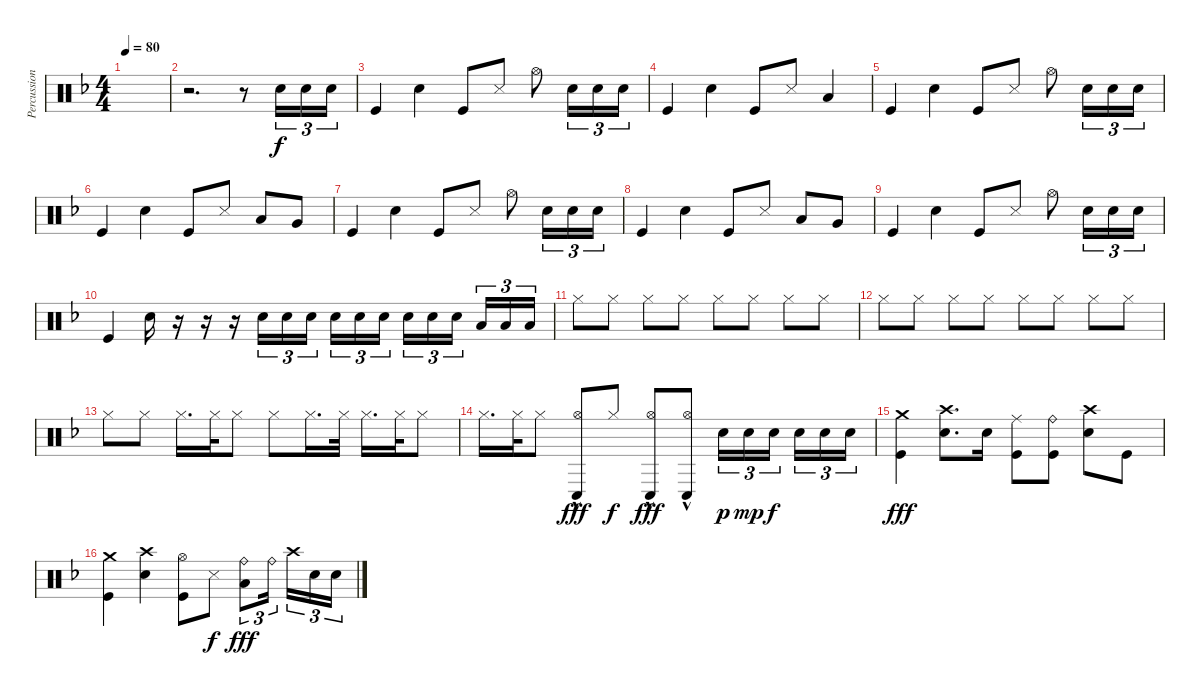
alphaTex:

\track ("Percussion" "Percussion") {instrument percussion}
\staff {score}
\articulation defaults
\ts (4 4)
\tempo 80
\clef neutral
\ks f
|
r.2{d} r.8 "Electric Snare (hit)".16{tu (3 2)} "Electric Snare (hit)".16{tu (3 2)} "Electric Snare (hit)".16{tu (3 2)} |
"Kick (hit)".4 "Electric Snare (hit)".4 "Kick (hit)".8 "Snare (side stick) 3".8 "Hi-Hat (open)".8 "Electric Snare (hit)".16{tu (3 2)} "Electric Snare (hit)".16{tu (3 2)} "Electric Snare (hit)".16{tu (3 2)} |
"Kick (hit)".4 "Electric Snare (hit)".4 "Kick (hit)".8 "Snare (side stick) 3".8 "Low Tom (hit)".4 |
"Kick (hit)".4 "Electric Snare (hit)".4 "Kick (hit)".8 "Snare (side stick) 3".8 "Hi-Hat (open)".8 "Electric Snare (hit)".16{tu (3 2)} "Electric Snare (hit)".16{tu (3 2)} "Electric Snare (hit)".16{tu (3 2)} |
"Kick (hit)".4 "Electric Snare (hit)".4 "Kick (hit)".8 "Snare (side stick) 3".8 "Low Tom (hit)".8 "Very Low Tom (hit)".8 |
"Kick (hit)".4 "Electric Snare (hit)".4 "Kick (hit)".8 "Snare (side stick) 3".8 "Hi-Hat (open)".8 "Electric Snare (hit)".16{tu (3 2)} "Electric Snare (hit)".16{tu (3 2)} "Electric Snare (hit)".16{tu (3 2)} |
"Kick (hit)".4 "Electric Snare (hit)".4 "Kick (hit)".8 "Snare (side stick) 3".8 "Low Tom (hit)".8 "Very Low Tom (hit)".8 |
"Kick (hit)".4 "Electric Snare (hit)".4 "Kick (hit)".8 "Snare (side stick) 3".8 "Hi-Hat (open)".8 "Electric Snare (hit)".16{tu (3 2)} "Electric Snare (hit)".16{tu (3 2)} "Electric Snare (hit)".16{tu (3 2)} |
"Kick (hit)".4 "Electric Snare (hit)".16 r.16{volume 6} r.16 r.16{volume 13} "Electric Snare (hit)".16{tu (3 2)} "Electric Snare (hit)".16{tu (3 2)} "Electric Snare (hit)".16{tu (3 2) beam splitsecondary} "Electric Snare (hit)".16{tu (3 2)} "Electric Snare (hit)".16{tu (3 2)} "Electric Snare (hit)".16{tu (3 2)} "Electric Snare (hit)".16{tu (3 2)} "Electric Snare (hit)".16{tu (3 2)} "Electric Snare (hit)".16{tu (3 2) beam splitsecondary} "Low Tom (hit)".16{tu (3 2)} "Low Tom (hit)".16{tu (3 2)} "Low Tom (hit)".16{tu (3 2)} |
"Hi-Hat (closed)".8 "Hi-Hat (closed)".8 "Hi-Hat (closed)".8 "Hi-Hat (closed)".8 "Hi-Hat (closed)".8 "Hi-Hat (closed)".8 "Hi-Hat (closed)".8 "Hi-Hat (closed)".8 |
"Hi-Hat (closed)".8 "Hi-Hat (closed)".8 "Hi-Hat (closed)".8 "Hi-Hat (closed)".8 "Hi-Hat (closed)".8 "Hi-Hat (closed)".8 "Hi-Hat (closed)".8 "Hi-Hat (closed)".8 |
"Hi-Hat (closed)".8 "Hi-Hat (closed)".8 "Hi-Hat (closed)".16{d} "Hi-Hat (closed)".32 "Hi-Hat (closed)".8 "Hi-Hat (closed)".8 "Hi-Hat (closed)".16{d} "Hi-Hat (closed)".32 "Hi-Hat (closed)".16{d} "Hi-Hat (closed)".32 "Hi-Hat (closed)".8 |
"Hi-Hat (closed)".16{d} "Hi-Hat (closed)".32 "Hi-Hat (closed)".8 ("Hi-Hat (open)" "Conga low (hit)"{hac}).8{dy fff} "Hi-Hat (closed)".8{dy f} ("Hi-Hat (open)" "Conga low (hit)"{hac}).8{dy fff} ("Hi-Hat (open)" "Conga low (hit)"{hac}).8 "Electric Snare (hit)".16{tu (3 2) dy p} "Electric Snare (hit)".16{tu (3 2) dy mp} "Electric Snare (hit)".16{tu (3 2) dy f beam splitsecondary} "Electric Snare (hit)".16{tu (3 2)} "Electric Snare (hit)".16{tu (3 2)} "Electric Snare (hit)".16{tu (3 2)} |
("Crash medium (hit)" "Kick (hit)").4{dy fff} ("Crash high (hit)" "Electric Snare (hit)").8{d} "Electric Snare (hit)".16 ("Ride (middle)" "Kick (hit)").8 ("Ride (bell)" "Kick (hit)").8 ("Crash high (hit)" "Electric Snare (hit)").8 "Kick (hit)".8 |
("Crash medium (hit)" "Kick (hit)").4 ("Crash high (hit)" "Electric Snare (hit)").4 ("Hi-Hat (open)" "Kick (hit)").8 "Snare (side stick) 3".8{dy f} ("Ride (bell)" "Low Tom (hit)").8{tu (3 2) dy fff} "Ride (bell)".16{tu (3 2) beam splitsecondary} "Crash high (hit)".16{tu (3 2)} "Electric Snare (hit)".16{tu (3 2)} "Electric Snare (hit)".16{tu (3 2)}
